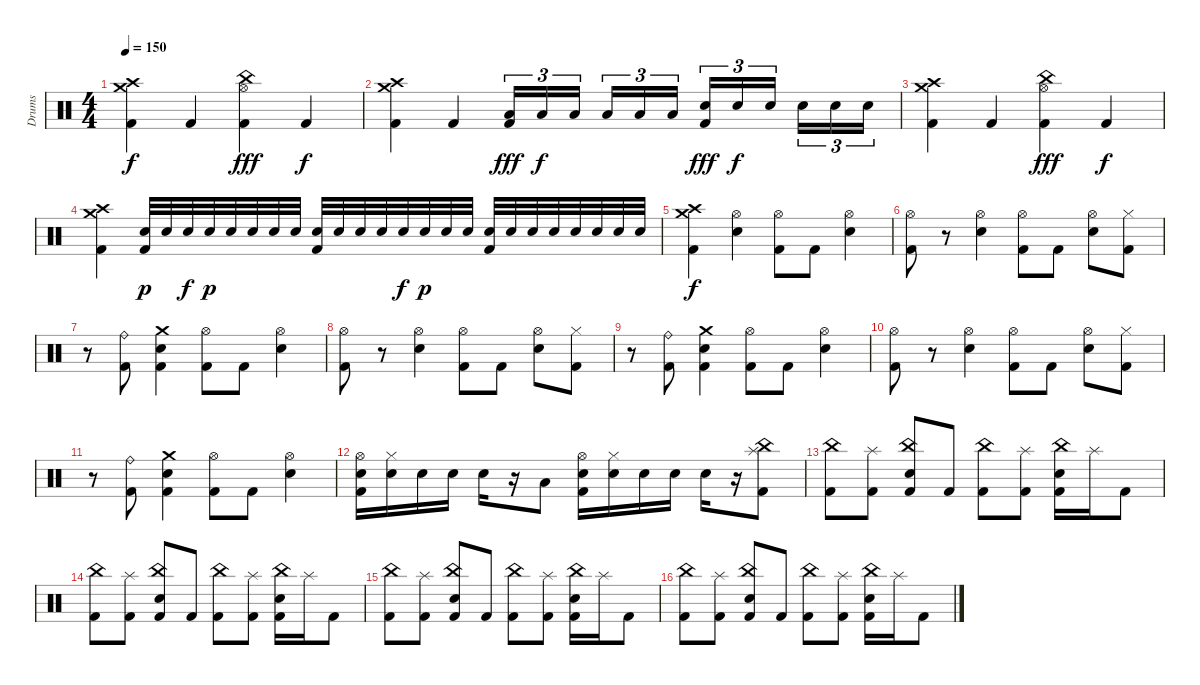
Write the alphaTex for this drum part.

\track ("Drums" "Drums") {instrument percussion}
\staff {score}
\articulation defaults
\ts (4 4)
\tempo 150
\clef neutral
\ks c
("Crash medium (hit)" "Crash high (hit)" "Kick (hit) 2").4{dy f} "Kick (hit) 2".4 ("China (hit)" "Hi-Hat (open)" "Kick (hit) 2").4{dy fff} "Kick (hit) 2".4{dy f} |
("Crash medium (hit)" "Crash high (hit)" "Kick (hit) 2").4 "Kick (hit) 2".4 ("Low Tom (hit)" "Kick (hit) 2").16{tu (3 2) dy fff} "Low Tom (hit)".16{tu (3 2) dy f} "Low Tom (hit)".16{tu (3 2) beam splitsecondary} "Low Tom (hit)".16{tu (3 2)} "Low Tom (hit)".16{tu (3 2)} "Low Tom (hit)".16{tu (3 2)} ("Electric Snare (hit)" "Kick (hit) 2").16{tu (3 2) dy fff} "Electric Snare (hit)".16{tu (3 2) dy f} "Electric Snare (hit)".16{tu (3 2) beam splitsecondary} "Electric Snare (hit)".16{tu (3 2)} "Electric Snare (hit)".16{tu (3 2)} "Electric Snare (hit)".16{tu (3 2)} |
("Crash medium (hit)" "Crash high (hit)" "Kick (hit) 2").4 "Kick (hit) 2".4 ("China (hit)" "Hi-Hat (open)" "Kick (hit) 2").4{dy fff} "Kick (hit) 2".4{dy f} |
("Crash medium (hit)" "Crash high (hit)" "Kick (hit) 2").4 ("Electric Snare (hit)" "Kick (hit) 2").32{dy p} "Electric Snare (hit)".32 "Electric Snare (hit)".32{dy f} "Electric Snare (hit)".32{dy p} "Electric Snare (hit)".32 "Electric Snare (hit)".32 "Electric Snare (hit)".32 "Electric Snare (hit)".32 ("Electric Snare (hit)" "Kick (hit) 2").32 "Electric Snare (hit)".32 "Electric Snare (hit)".32 "Electric Snare (hit)".32 "Electric Snare (hit)".32{dy f} "Electric Snare (hit)".32{dy p} "Electric Snare (hit)".32 "Electric Snare (hit)".32 ("Electric Snare (hit)" "Kick (hit) 2").32 "Electric Snare (hit)".32 "Electric Snare (hit)".32 "Electric Snare (hit)".32 "Electric Snare (hit)".32 "Electric Snare (hit)".32 "Electric Snare (hit)".32 "Electric Snare (hit)".32 |
("Crash medium (hit)" "Crash high (hit)" "Kick (hit) 2").4{dy f} ("Hi-Hat (open)" "Electric Snare (hit)").4 ("Hi-Hat (open)" "Kick (hit) 2").8 "Kick (hit) 2".8 ("Hi-Hat (open)" "Electric Snare (hit)").4 |
("Hi-Hat (open)" "Kick (hit) 2").8 r.8 ("Hi-Hat (open)" "Electric Snare (hit)").4 ("Hi-Hat (open)" "Kick (hit) 2").8 "Kick (hit) 2".8 ("Hi-Hat (open)" "Electric Snare (hit)").8 ("Hi-Hat (closed)" "Kick (hit) 2").8 |
r.8 ("Ride (bell)" "Kick (hit) 2").8 ("Crash medium (hit)" "Electric Snare (hit)" "Kick (hit) 2").4 ("Hi-Hat (open)" "Kick (hit) 2").8 "Kick (hit) 2".8 ("Hi-Hat (open)" "Electric Snare (hit)").4 |
("Hi-Hat (open)" "Kick (hit) 2").8 r.8 ("Hi-Hat (open)" "Electric Snare (hit)").4 ("Hi-Hat (open)" "Kick (hit) 2").8 "Kick (hit) 2".8 ("Hi-Hat (open)" "Electric Snare (hit)").8 ("Hi-Hat (closed)" "Kick (hit) 2").8 |
r.8 ("Ride (bell)" "Kick (hit) 2").8 ("Crash medium (hit)" "Electric Snare (hit)" "Kick (hit) 2").4 ("Hi-Hat (open)" "Kick (hit) 2").8 "Kick (hit) 2".8 ("Hi-Hat (open)" "Electric Snare (hit)").4 |
("Hi-Hat (open)" "Kick (hit) 2").8 r.8 ("Hi-Hat (open)" "Electric Snare (hit)").4 ("Hi-Hat (open)" "Kick (hit) 2").8 "Kick (hit) 2".8 ("Hi-Hat (open)" "Electric Snare (hit)").8 ("Hi-Hat (closed)" "Kick (hit) 2").8 |
r.8 ("Ride (bell)" "Kick (hit) 2").8 ("Crash medium (hit)" "Electric Snare (hit)" "Kick (hit) 2").4 ("Hi-Hat (open)" "Kick (hit) 2").8 "Kick (hit) 2".8 ("Hi-Hat (open)" "Electric Snare (hit)").4 |
("Hi-Hat (open)" "Electric Snare (hit)" "Kick (hit) 2").16 ("Hi-Hat (closed)" "Electric Snare (hit)").16 "Electric Snare (hit)".16 "Electric Snare (hit)".16 "Electric Snare (hit)".16 r.16 "Low Tom (hit)".8 ("Hi-Hat (open)" "Electric Snare (hit)" "Kick (hit) 2").16 ("Hi-Hat (closed)" "Electric Snare (hit)").16 "Electric Snare (hit)".16 "Electric Snare (hit)".16 "Electric Snare (hit)".16 r.16 ("China (hit)" "Splash (hit)" "Kick (hit) 2").8 |
("China (hit)" "Kick (hit) 2").8 ("Splash (hit)" "Kick (hit) 2").8 ("China (hit)" "Electric Snare (hit)" "Kick (hit) 2").8 "Kick (hit) 2".8 ("China (hit)" "Kick (hit) 2").8 ("Splash (hit)" "Kick (hit) 2").8 ("China (hit)" "Electric Snare (hit)" "Kick (hit) 2").16 "Splash (hit)".16 "Kick (hit) 2".8 |
("China (hit)" "Kick (hit) 2").8 ("Splash (hit)" "Kick (hit) 2").8 ("China (hit)" "Electric Snare (hit)" "Kick (hit) 2").8 "Kick (hit) 2".8 ("China (hit)" "Kick (hit) 2").8 ("Splash (hit)" "Kick (hit) 2").8 ("China (hit)" "Electric Snare (hit)" "Kick (hit) 2").16 "Splash (hit)".16 "Kick (hit) 2".8 |
("China (hit)" "Kick (hit) 2").8 ("Splash (hit)" "Kick (hit) 2").8 ("China (hit)" "Electric Snare (hit)" "Kick (hit) 2").8 "Kick (hit) 2".8 ("China (hit)" "Kick (hit) 2").8 ("Splash (hit)" "Kick (hit) 2").8 ("China (hit)" "Electric Snare (hit)" "Kick (hit) 2").16 "Splash (hit)".16 "Kick (hit) 2".8 |
("China (hit)" "Kick (hit) 2").8 ("Splash (hit)" "Kick (hit) 2").8 ("China (hit)" "Electric Snare (hit)" "Kick (hit) 2").8 "Kick (hit) 2".8 ("China (hit)" "Kick (hit) 2").8 ("Splash (hit)" "Kick (hit) 2").8 ("China (hit)" "Electric Snare (hit)" "Kick (hit) 2").16 "Splash (hit)".16 "Kick (hit) 2".8
